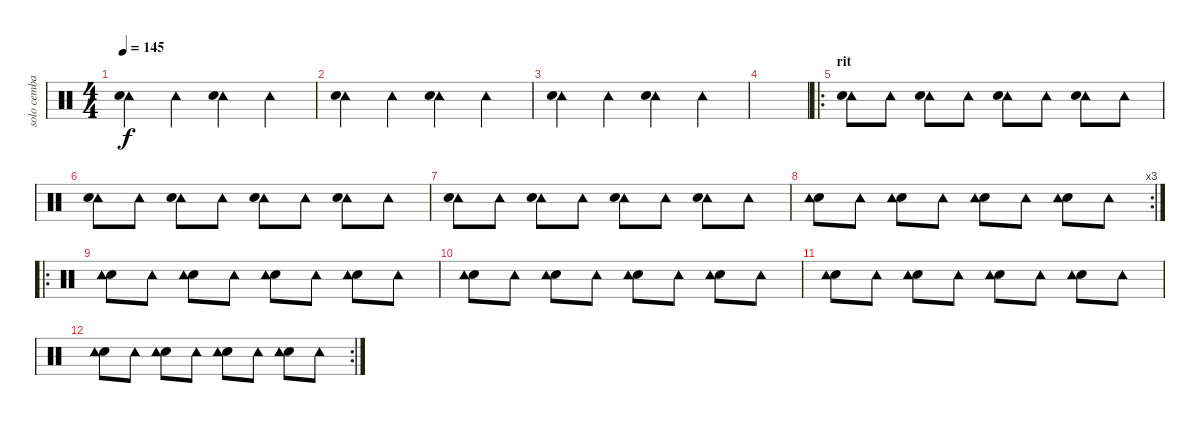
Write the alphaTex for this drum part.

\track ("solo cembalo" "solo cemba") {instrument percussion}
\staff {score}
\articulation defaults
\ts (4 4)
\tempo 145
\clef neutral
\ks c
("Tambourine (hit)" "Hand Clap (hit)").4{dy f} "Tambourine (hit)".4 ("Tambourine (hit)" "Hand Clap (hit)").4 "Tambourine (hit)".4 |
("Tambourine (hit)" "Hand Clap (hit)").4 "Tambourine (hit)".4 ("Tambourine (hit)" "Hand Clap (hit)").4 "Tambourine (hit)".4 |
("Tambourine (hit)" "Hand Clap (hit)").4 "Tambourine (hit)".4 ("Tambourine (hit)" "Hand Clap (hit)").4 "Tambourine (hit)".4 |
|
\ro
\section ("" "rit")
("Tambourine (hit)" "Hand Clap (hit)").8 "Tambourine (hit)".8 ("Tambourine (hit)" "Hand Clap (hit)").8 "Tambourine (hit)".8 ("Tambourine (hit)" "Hand Clap (hit)").8 "Tambourine (hit)".8 ("Tambourine (hit)" "Hand Clap (hit)").8 "Tambourine (hit)".8 |
("Tambourine (hit)" "Hand Clap (hit)").8 "Tambourine (hit)".8 ("Tambourine (hit)" "Hand Clap (hit)").8 "Tambourine (hit)".8 ("Tambourine (hit)" "Hand Clap (hit)").8 "Tambourine (hit)".8 ("Tambourine (hit)" "Hand Clap (hit)").8 "Tambourine (hit)".8 |
("Tambourine (hit)" "Hand Clap (hit)").8 "Tambourine (hit)".8 ("Tambourine (hit)" "Hand Clap (hit)").8 "Tambourine (hit)".8 ("Tambourine (hit)" "Hand Clap (hit)").8 "Tambourine (hit)".8 ("Tambourine (hit)" "Hand Clap (hit)").8 "Tambourine (hit)".8 |
\rc 3
("Hand Clap (hit)" "Tambourine (hit)").8 "Tambourine (hit)".8 ("Hand Clap (hit)" "Tambourine (hit)").8 "Tambourine (hit)".8 ("Hand Clap (hit)" "Tambourine (hit)").8 "Tambourine (hit)".8 ("Hand Clap (hit)" "Tambourine (hit)").8 "Tambourine (hit)".8 |
\ro
("Hand Clap (hit)" "Tambourine (hit)").8 "Tambourine (hit)".8 ("Hand Clap (hit)" "Tambourine (hit)").8 "Tambourine (hit)".8 ("Hand Clap (hit)" "Tambourine (hit)").8 "Tambourine (hit)".8 ("Hand Clap (hit)" "Tambourine (hit)").8 "Tambourine (hit)".8 |
("Hand Clap (hit)" "Tambourine (hit)").8 "Tambourine (hit)".8 ("Hand Clap (hit)" "Tambourine (hit)").8 "Tambourine (hit)".8 ("Hand Clap (hit)" "Tambourine (hit)").8 "Tambourine (hit)".8 ("Hand Clap (hit)" "Tambourine (hit)").8 "Tambourine (hit)".8 |
("Hand Clap (hit)" "Tambourine (hit)").8 "Tambourine (hit)".8 ("Hand Clap (hit)" "Tambourine (hit)").8 "Tambourine (hit)".8 ("Hand Clap (hit)" "Tambourine (hit)").8 "Tambourine (hit)".8 ("Hand Clap (hit)" "Tambourine (hit)").8 "Tambourine (hit)".8 |
\rc 2
("Hand Clap (hit)" "Tambourine (hit)").8 "Tambourine (hit)".8 ("Hand Clap (hit)" "Tambourine (hit)").8 "Tambourine (hit)".8 ("Hand Clap (hit)" "Tambourine (hit)").8 "Tambourine (hit)".8 ("Hand Clap (hit)" "Tambourine (hit)").8 "Tambourine (hit)".8
